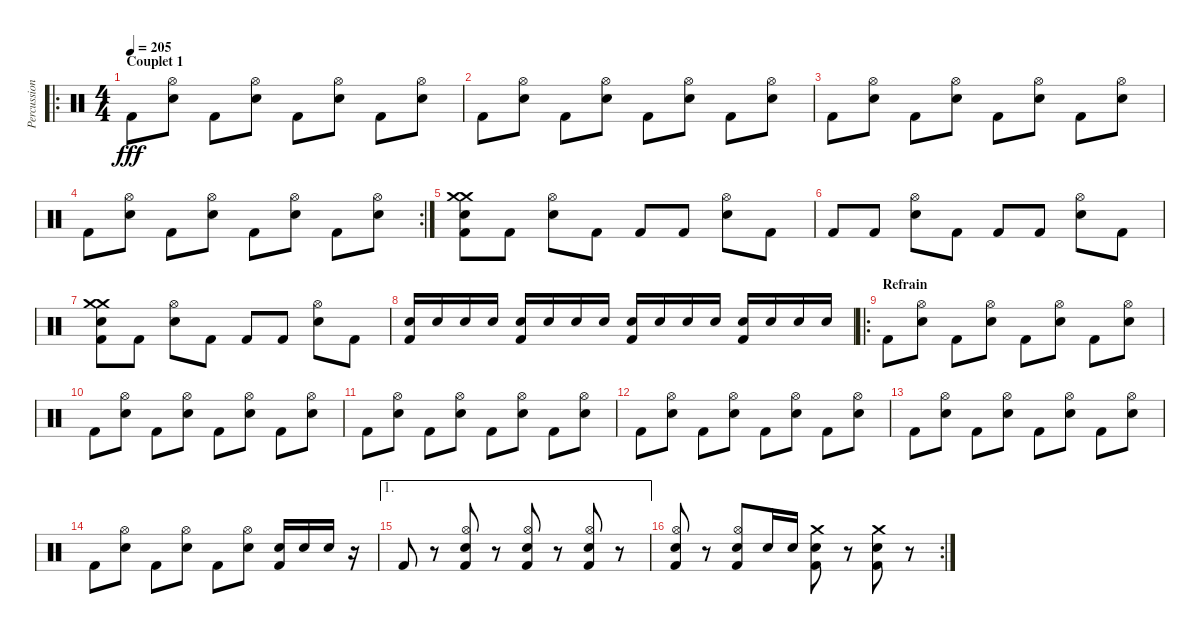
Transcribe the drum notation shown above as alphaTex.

\track ("Percussions" "Percussion") {instrument percussion}
\staff {score}
\articulation defaults
\ro
\ts (4 4)
\section ("" "Couplet 1")
\tempo 205
\clef neutral
\ks c "Kick (hit) 2".8{dy fff}
("Hi-Hat (open)" "Snare (hit) 2").8 "Kick (hit) 2".8 ("Hi-Hat (open)" "Snare (hit) 2").8 "Kick (hit) 2".8 ("Hi-Hat (open)" "Snare (hit) 2").8 "Kick (hit) 2".8 ("Hi-Hat (open)" "Snare (hit) 2").8 |
"Kick (hit) 2".8 ("Hi-Hat (open)" "Snare (hit) 2").8 "Kick (hit) 2".8 ("Hi-Hat (open)" "Snare (hit) 2").8 "Kick (hit) 2".8 ("Hi-Hat (open)" "Snare (hit) 2").8 "Kick (hit) 2".8 ("Hi-Hat (open)" "Snare (hit) 2").8 |
"Kick (hit) 2".8 ("Hi-Hat (open)" "Snare (hit) 2").8 "Kick (hit) 2".8 ("Hi-Hat (open)" "Snare (hit) 2").8 "Kick (hit) 2".8 ("Hi-Hat (open)" "Snare (hit) 2").8 "Kick (hit) 2".8 ("Hi-Hat (open)" "Snare (hit) 2").8 |
\rc 2 "Kick (hit) 2".8
("Hi-Hat (open)" "Snare (hit) 2").8 "Kick (hit) 2".8 ("Hi-Hat (open)" "Snare (hit) 2").8 "Kick (hit) 2".8 ("Hi-Hat (open)" "Snare (hit) 2").8 "Kick (hit) 2".8 ("Hi-Hat (open)" "Snare (hit) 2").8 |
("Crash medium (hit)" "Crash medium (hit)" "Snare (hit) 2" "Kick (hit) 2").8 "Kick (hit) 2".8 ("Hi-Hat (open)" "Snare (hit) 2").8 "Kick (hit) 2".8 "Kick (hit) 2".8 "Kick (hit) 2".8 ("Hi-Hat (open)" "Snare (hit) 2").8 "Kick (hit) 2".8 |
"Kick (hit) 2".8 "Kick (hit) 2".8 ("Hi-Hat (open)" "Snare (hit) 2").8 "Kick (hit) 2".8 "Kick (hit) 2".8 "Kick (hit) 2".8 ("Hi-Hat (open)" "Snare (hit) 2").8 "Kick (hit) 2".8 |
("Crash medium (hit)" "Crash medium (hit)" "Snare (hit) 2" "Kick (hit) 2").8 "Kick (hit) 2".8 ("Hi-Hat (open)" "Snare (hit) 2").8 "Kick (hit) 2".8 "Kick (hit) 2".8 "Kick (hit) 2".8 ("Hi-Hat (open)" "Snare (hit) 2").8 "Kick (hit) 2".8 |
("Snare (hit) 2" "Kick (hit) 2").16 "Snare (hit) 2".16 "Snare (hit) 2".16 "Snare (hit) 2".16 ("Snare (hit) 2" "Kick (hit) 2").16 "Snare (hit) 2".16 "Snare (hit) 2".16 "Snare (hit) 2".16 ("Snare (hit) 2" "Kick (hit) 2").16 "Snare (hit) 2".16 "Snare (hit) 2".16 "Snare (hit) 2".16 ("Snare (hit) 2" "Kick (hit) 2").16 "Snare (hit) 2".16 "Snare (hit) 2".16 "Snare (hit) 2".16 |
\ro
\section ("" "Refrain")
"Kick (hit) 2".8 ("Hi-Hat (open)" "Snare (hit) 2").8 "Kick (hit) 2".8 ("Hi-Hat (open)" "Snare (hit) 2").8 "Kick (hit) 2".8 ("Hi-Hat (open)" "Snare (hit) 2").8 "Kick (hit) 2".8 ("Hi-Hat (open)" "Snare (hit) 2").8 |
"Kick (hit) 2".8 ("Hi-Hat (open)" "Snare (hit) 2").8 "Kick (hit) 2".8 ("Hi-Hat (open)" "Snare (hit) 2").8 "Kick (hit) 2".8 ("Hi-Hat (open)" "Snare (hit) 2").8 "Kick (hit) 2".8 ("Hi-Hat (open)" "Snare (hit) 2").8 |
"Kick (hit) 2".8 ("Hi-Hat (open)" "Snare (hit) 2").8 "Kick (hit) 2".8 ("Hi-Hat (open)" "Snare (hit) 2").8 "Kick (hit) 2".8 ("Hi-Hat (open)" "Snare (hit) 2").8 "Kick (hit) 2".8 ("Hi-Hat (open)" "Snare (hit) 2").8 |
"Kick (hit) 2".8 ("Hi-Hat (open)" "Snare (hit) 2").8 "Kick (hit) 2".8 ("Hi-Hat (open)" "Snare (hit) 2").8 "Kick (hit) 2".8 ("Hi-Hat (open)" "Snare (hit) 2").8 "Kick (hit) 2".8 ("Hi-Hat (open)" "Snare (hit) 2").8 |
"Kick (hit) 2".8 ("Hi-Hat (open)" "Snare (hit) 2").8 "Kick (hit) 2".8 ("Hi-Hat (open)" "Snare (hit) 2").8 "Kick (hit) 2".8 ("Hi-Hat (open)" "Snare (hit) 2").8 "Kick (hit) 2".8 ("Hi-Hat (open)" "Snare (hit) 2").8 |
"Kick (hit) 2".8 ("Hi-Hat (open)" "Snare (hit) 2").8 "Kick (hit) 2".8 ("Hi-Hat (open)" "Snare (hit) 2").8 "Kick (hit) 2".8 ("Hi-Hat (open)" "Snare (hit) 2").8 ("Snare (hit) 2" "Kick (hit) 2").16 "Snare (hit) 2".16 "Snare (hit) 2".16 r.16 |
\ae 1 "Kick (hit) 2".8
r.8 ("Hi-Hat (open)" "Snare (hit) 2" "Kick (hit) 2").8 r.8 ("Hi-Hat (open)" "Snare (hit) 2" "Kick (hit) 2").8 r.8 ("Hi-Hat (open)" "Snare (hit) 2" "Kick (hit) 2").8 r.8 |
\rc 2
("Hi-Hat (open)" "Snare (hit) 2" "Kick (hit) 2").8 r.8 ("Hi-Hat (open)" "Snare (hit) 2" "Kick (hit) 2").8 "Snare (hit) 2".16 "Snare (hit) 2".16 ("Crash medium (hit)" "Snare (hit) 2" "Kick (hit) 2").8 r.8 ("Crash medium (hit)" "Snare (hit) 2" "Kick (hit) 2").8 r.8
